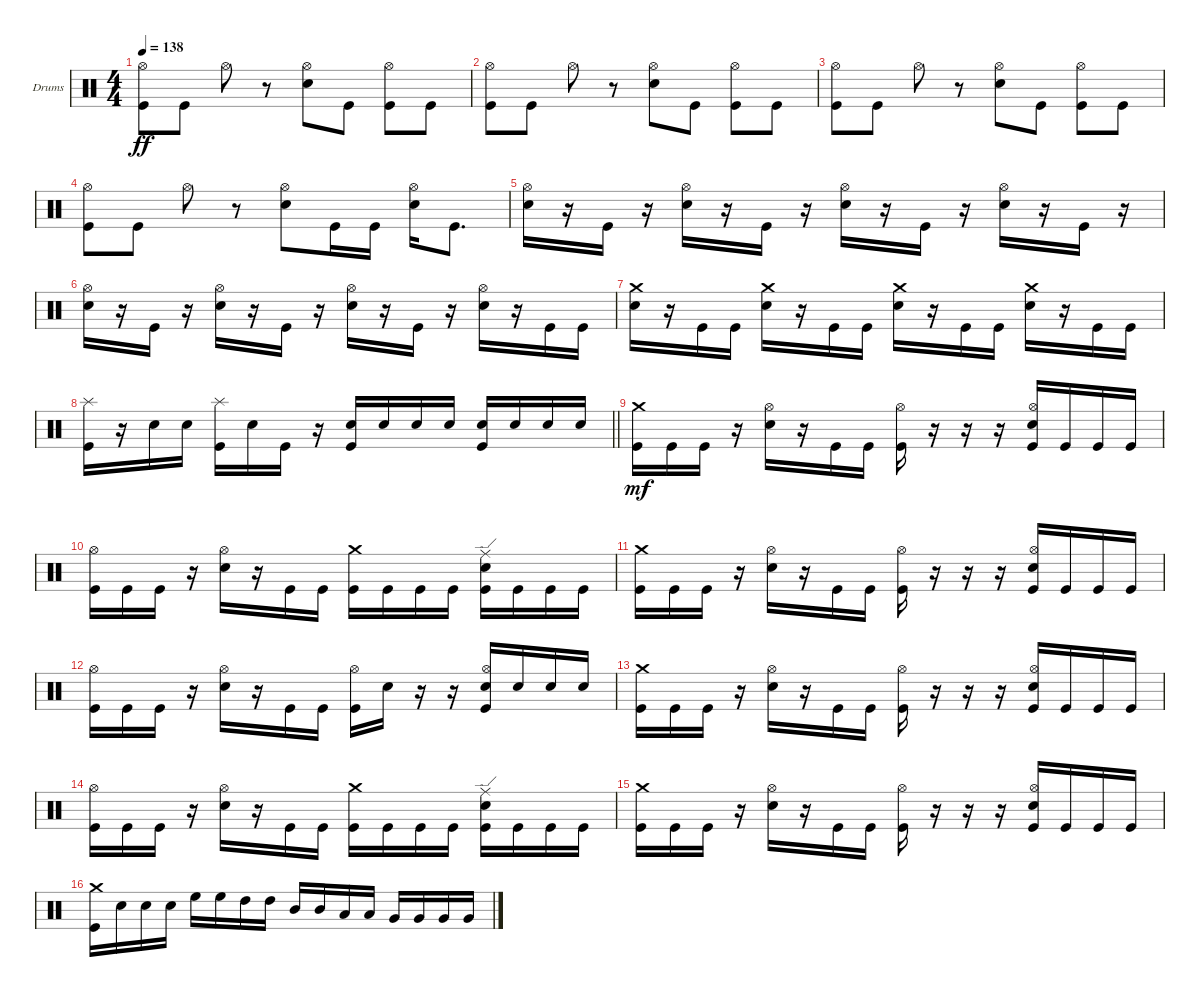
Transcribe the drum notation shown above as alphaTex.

\bracketExtendMode groupsimilarinstruments
\firstSystemTrackNameOrientation horizontal
\otherSystemsTrackNameOrientation horizontal
\track ("Drumkit" "Drums") {instrument percussion}
\staff {score}
\articulation defaults
\ts (4 4)
\tempo 138
\clef neutral
\ks c
("Kick (hit)" "Hi-Hat (open)").8{dy ff} "Kick (hit)".8 "Hi-Hat (open)".8 r.8 ("Snare (hit) 2" "Hi-Hat (open)").8 "Kick (hit)".8 ("Kick (hit)" "Hi-Hat (open)").8 "Kick (hit)".8 |
("Kick (hit)" "Hi-Hat (open)").8 "Kick (hit)".8 "Hi-Hat (open)".8 r.8 ("Snare (hit) 2" "Hi-Hat (open)").8 "Kick (hit)".8 ("Kick (hit)" "Hi-Hat (open)").8 "Kick (hit)".8 |
("Kick (hit)" "Hi-Hat (open)").8 "Kick (hit)".8 "Hi-Hat (open)".8 r.8 ("Snare (hit) 2" "Hi-Hat (open)").8 "Kick (hit)".8 ("Kick (hit)" "Hi-Hat (open)").8 "Kick (hit)".8 |
("Kick (hit)" "Hi-Hat (open)").8 "Kick (hit)".8 "Hi-Hat (open)".8 r.8 ("Snare (hit) 2" "Hi-Hat (open)").8 "Kick (hit)".16 "Kick (hit)".16 ("Snare (hit) 2" "Hi-Hat (open)").16 "Kick (hit)".8{d} |
("Snare (hit) 2" "Hi-Hat (open)").16 r.16 "Kick (hit)".16 r.16 ("Snare (hit) 2" "Hi-Hat (open)").16 r.16 "Kick (hit)".16 r.16 ("Snare (hit) 2" "Hi-Hat (open)").16 r.16 "Kick (hit)".16 r.16 ("Snare (hit) 2" "Hi-Hat (open)").16 r.16 "Kick (hit)".16 r.16 |
("Snare (hit) 2" "Hi-Hat (open)").16 r.16 "Kick (hit)".16 r.16 ("Snare (hit) 2" "Hi-Hat (open)").16 r.16 "Kick (hit)".16 r.16 ("Snare (hit) 2" "Hi-Hat (open)").16 r.16 "Kick (hit)".16 r.16 ("Snare (hit) 2" "Hi-Hat (open)").16 r.16 "Kick (hit)".16 "Kick (hit)".16 |
("Snare (hit) 2" "Crash medium (hit)").16 r.16 "Kick (hit)".16 "Kick (hit)".16 ("Snare (hit) 2" "Crash medium (hit)").16 r.16 "Kick (hit)".16 "Kick (hit)".16 ("Snare (hit) 2" "Crash medium (hit)").16 r.16 "Kick (hit)".16 "Kick (hit)".16 ("Snare (hit) 2" "Crash medium (hit)").16 r.16 "Kick (hit)".16 "Kick (hit)".16 |
\barLineRight lightlight
("Splash (hit)" "Kick (hit)").16 r.16 "Snare (hit) 2".16 "Snare (hit) 2".16 ("Splash (hit)" "Kick (hit)").16 "Snare (hit) 2".16 "Kick (hit)".16 r.16 ("Snare (hit) 2" "Kick (hit)").16 "Snare (hit) 2".16 "Snare (hit) 2".16 "Snare (hit) 2".16 ("Snare (hit) 2" "Kick (hit)").16 "Snare (hit) 2".16 "Snare (hit) 2".16 "Snare (hit) 2".16 |
("Kick (hit)" "Crash medium (hit)").16{dy mf} "Kick (hit)".16 "Kick (hit)".16 r.16 ("Snare (hit) 2" "Hi-Hat (open)").16 r.16 "Kick (hit)".16 "Kick (hit)".16 ("Kick (hit)" "Hi-Hat (open)").16 r.16 r.16 r.16 ("Snare (hit) 2" "Kick (hit)" "Hi-Hat (open)").16 "Kick (hit)".16 "Kick (hit)".16 "Kick (hit)".16 |
("Kick (hit)" "Hi-Hat (open)").16 "Kick (hit)".16 "Kick (hit)".16 r.16 ("Snare (hit) 2" "Hi-Hat (open)").16 r.16 "Kick (hit)".16 "Kick (hit)".16 ("Kick (hit)" "Crash medium (hit)").16 "Kick (hit)".16 "Kick (hit)".16 "Kick (hit)".16 ("Kick (hit)" "Snare (hit) 2" "Ride (edge)").16 "Kick (hit)".16 "Kick (hit)".16 "Kick (hit)".16 |
("Kick (hit)" "Crash medium (hit)").16 "Kick (hit)".16 "Kick (hit)".16 r.16 ("Snare (hit) 2" "Hi-Hat (open)").16 r.16 "Kick (hit)".16 "Kick (hit)".16 ("Kick (hit)" "Hi-Hat (open)").16 r.16 r.16 r.16 ("Snare (hit) 2" "Kick (hit)" "Hi-Hat (open)").16 "Kick (hit)".16 "Kick (hit)".16 "Kick (hit)".16 |
("Kick (hit)" "Hi-Hat (open)").16 "Kick (hit)".16 "Kick (hit)".16 r.16 ("Snare (hit) 2" "Hi-Hat (open)").16 r.16 "Kick (hit)".16 "Kick (hit)".16 ("Kick (hit)" "Hi-Hat (open)").16 "Snare (hit) 2".16 r.16 r.16 ("Hi-Hat (open)" "Snare (hit) 2" "Kick (hit)").16 "Snare (hit) 2".16 "Snare (hit) 2".16 "Snare (hit) 2".16 |
("Kick (hit)" "Crash medium (hit)").16 "Kick (hit)".16 "Kick (hit)".16 r.16 ("Snare (hit) 2" "Hi-Hat (open)").16 r.16 "Kick (hit)".16 "Kick (hit)".16 ("Kick (hit)" "Hi-Hat (open)").16 r.16 r.16 r.16 ("Snare (hit) 2" "Kick (hit)" "Hi-Hat (open)").16 "Kick (hit)".16 "Kick (hit)".16 "Kick (hit)".16 |
("Kick (hit)" "Hi-Hat (open)").16 "Kick (hit)".16 "Kick (hit)".16 r.16 ("Snare (hit) 2" "Hi-Hat (open)").16 r.16 "Kick (hit)".16 "Kick (hit)".16 ("Kick (hit)" "Crash medium (hit)").16 "Kick (hit)".16 "Kick (hit)".16 "Kick (hit)".16 ("Kick (hit)" "Snare (hit) 2" "Ride (edge)").16 "Kick (hit)".16 "Kick (hit)".16 "Kick (hit)".16 |
("Kick (hit)" "Crash medium (hit)").16 "Kick (hit)".16 "Kick (hit)".16 r.16 ("Snare (hit) 2" "Hi-Hat (open)").16 r.16 "Kick (hit)".16 "Kick (hit)".16 ("Kick (hit)" "Hi-Hat (open)").16 r.16 r.16 r.16 ("Snare (hit) 2" "Kick (hit)" "Hi-Hat (open)").16 "Kick (hit)".16 "Kick (hit)".16 "Kick (hit)".16 |
("Kick (hit)" "Crash medium (hit)").16 "Snare (hit) 2".16 "Snare (hit) 2".16 "Snare (hit) 2".16 "High Floor Tom (hit)".16 "High Floor Tom (hit)".16 "High Tom (hit)".16 "High Tom (hit)".16 "Mid Tom (hit)".16 "Mid Tom (hit)".16 "Low Tom (hit)".16 "Low Tom (hit)".16 "Very Low Tom (hit)".16 "Very Low Tom (hit)".16 "Very Low Tom (hit)".16 "Very Low Tom (hit)".16
